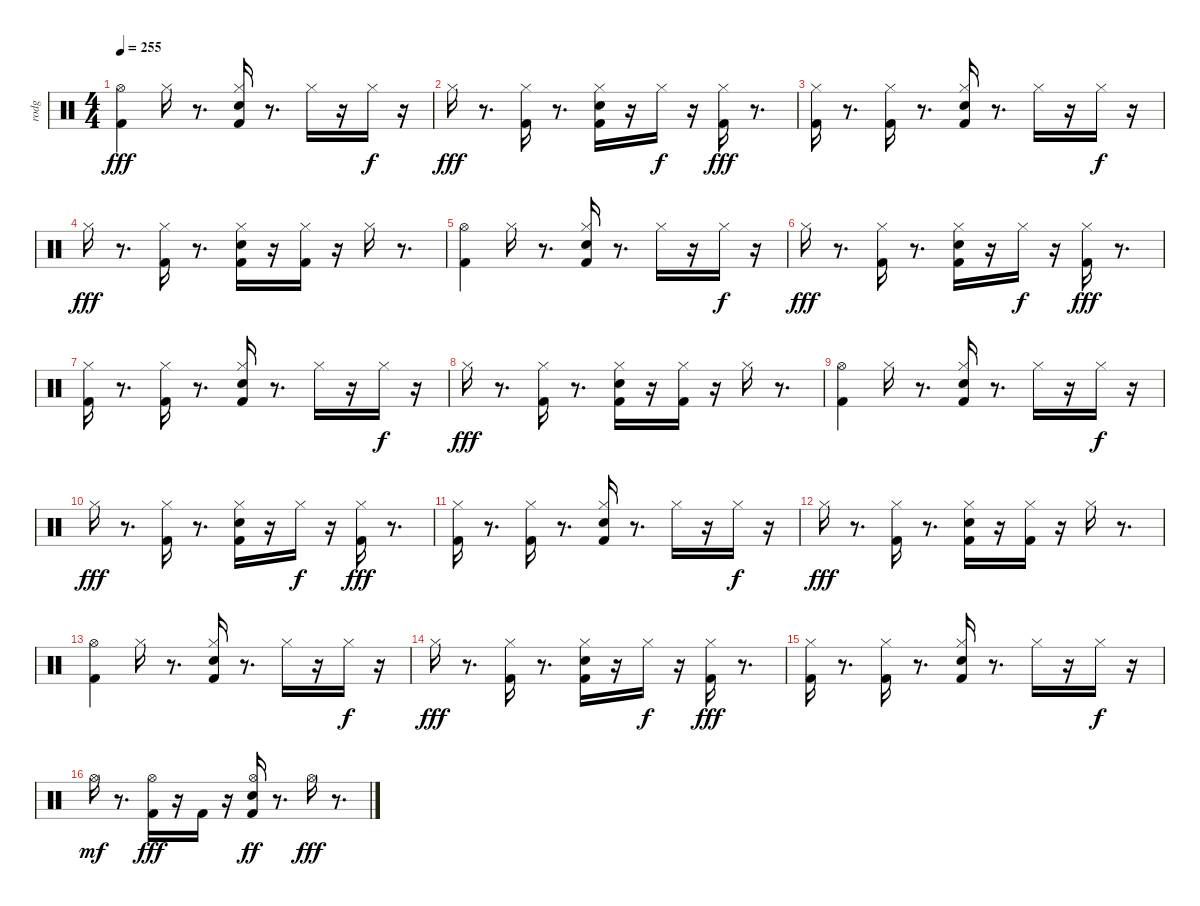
\track ("rodg" "rodg") {instrument percussion}
\staff {score}
\articulation defaults
\ts (4 4)
\tempo 255
\clef neutral
\ks c
("Kick (hit) 2" "Hi-Hat (open)").4{dy fff} "Hi-Hat (closed)".16 r.8{d} ("Kick (hit) 2" "Electric Snare (hit)" "Hi-Hat (closed)").16 r.8{d} "Hi-Hat (closed)".16 r.16 "Hi-Hat (closed)".16{dy f} r.16 |
"Hi-Hat (closed)".16{dy fff} r.8{d} ("Kick (hit) 2" "Hi-Hat (closed)").16 r.8{d} ("Kick (hit) 2" "Electric Snare (hit)" "Hi-Hat (closed)").16 r.16 "Hi-Hat (closed)".16{dy f} r.16 ("Kick (hit) 2" "Hi-Hat (closed)").16{dy fff} r.8{d} |
("Kick (hit) 2" "Hi-Hat (closed)").16 r.8{d} ("Hi-Hat (closed)" "Kick (hit) 2").16 r.8{d} ("Kick (hit) 2" "Electric Snare (hit)" "Hi-Hat (closed)").16 r.8{d} "Hi-Hat (closed)".16 r.16 "Hi-Hat (closed)".16{dy f} r.16 |
"Hi-Hat (closed)".16{dy fff} r.8{d} ("Kick (hit) 2" "Hi-Hat (closed)").16 r.8{d} ("Kick (hit) 2" "Electric Snare (hit)" "Hi-Hat (closed)").16 r.16 ("Hi-Hat (closed)" "Kick (hit) 2").16 r.16 "Hi-Hat (closed)".16 r.8{d} |
("Hi-Hat (open)" "Kick (hit) 2").4 "Hi-Hat (closed)".16 r.8{d} ("Kick (hit) 2" "Electric Snare (hit)" "Hi-Hat (closed)").16 r.8{d} "Hi-Hat (closed)".16 r.16 "Hi-Hat (closed)".16{dy f} r.16 |
"Hi-Hat (closed)".16{dy fff} r.8{d} ("Kick (hit) 2" "Hi-Hat (closed)").16 r.8{d} ("Kick (hit) 2" "Electric Snare (hit)" "Hi-Hat (closed)").16 r.16 "Hi-Hat (closed)".16{dy f} r.16 ("Kick (hit) 2" "Hi-Hat (closed)").16{dy fff} r.8{d} |
("Kick (hit) 2" "Hi-Hat (closed)").16 r.8{d} ("Hi-Hat (closed)" "Kick (hit) 2").16 r.8{d} ("Kick (hit) 2" "Electric Snare (hit)" "Hi-Hat (closed)").16 r.8{d} "Hi-Hat (closed)".16 r.16 "Hi-Hat (closed)".16{dy f} r.16 |
"Hi-Hat (closed)".16{dy fff} r.8{d} ("Kick (hit) 2" "Hi-Hat (closed)").16 r.8{d} ("Kick (hit) 2" "Electric Snare (hit)" "Hi-Hat (closed)").16 r.16 ("Hi-Hat (closed)" "Kick (hit) 2").16 r.16 "Hi-Hat (closed)".16 r.8{d} |
("Hi-Hat (open)" "Kick (hit) 2").4 "Hi-Hat (closed)".16 r.8{d} ("Kick (hit) 2" "Electric Snare (hit)" "Hi-Hat (closed)").16 r.8{d} "Hi-Hat (closed)".16 r.16 "Hi-Hat (closed)".16{dy f} r.16 |
"Hi-Hat (closed)".16{dy fff} r.8{d} ("Kick (hit) 2" "Hi-Hat (closed)").16 r.8{d} ("Kick (hit) 2" "Electric Snare (hit)" "Hi-Hat (closed)").16 r.16 "Hi-Hat (closed)".16{dy f} r.16 ("Kick (hit) 2" "Hi-Hat (closed)").16{dy fff} r.8{d} |
("Kick (hit) 2" "Hi-Hat (closed)").16 r.8{d} ("Hi-Hat (closed)" "Kick (hit) 2").16 r.8{d} ("Kick (hit) 2" "Electric Snare (hit)" "Hi-Hat (closed)").16 r.8{d} "Hi-Hat (closed)".16 r.16 "Hi-Hat (closed)".16{dy f} r.16 |
"Hi-Hat (closed)".16{dy fff} r.8{d} ("Kick (hit) 2" "Hi-Hat (closed)").16 r.8{d} ("Kick (hit) 2" "Electric Snare (hit)" "Hi-Hat (closed)").16 r.16 ("Hi-Hat (closed)" "Kick (hit) 2").16 r.16 "Hi-Hat (closed)".16 r.8{d} |
("Hi-Hat (open)" "Kick (hit) 2").4 "Hi-Hat (closed)".16 r.8{d} ("Kick (hit) 2" "Electric Snare (hit)" "Hi-Hat (closed)").16 r.8{d} "Hi-Hat (closed)".16 r.16 "Hi-Hat (closed)".16{dy f} r.16 |
"Hi-Hat (closed)".16{dy fff} r.8{d} ("Kick (hit) 2" "Hi-Hat (closed)").16 r.8{d} ("Kick (hit) 2" "Electric Snare (hit)" "Hi-Hat (closed)").16 r.16 "Hi-Hat (closed)".16{dy f} r.16 ("Kick (hit) 2" "Hi-Hat (closed)").16{dy fff} r.8{d} |
("Kick (hit) 2" "Hi-Hat (closed)").16 r.8{d} ("Hi-Hat (closed)" "Kick (hit) 2").16 r.8{d} ("Kick (hit) 2" "Electric Snare (hit)" "Hi-Hat (closed)").16 r.8{d} "Hi-Hat (closed)".16 r.16 "Hi-Hat (closed)".16{dy f} r.16 |
"Hi-Hat (open)".16{dy mf} r.8{d} ("Kick (hit) 2" "Hi-Hat (open)").16{dy fff} r.16 "Kick (hit) 2".16 r.16 ("Kick (hit) 2" "Electric Snare (hit)" "Hi-Hat (open)").16{dy ff} r.8{d} "Hi-Hat (open)".16{dy fff} r.8{d}
